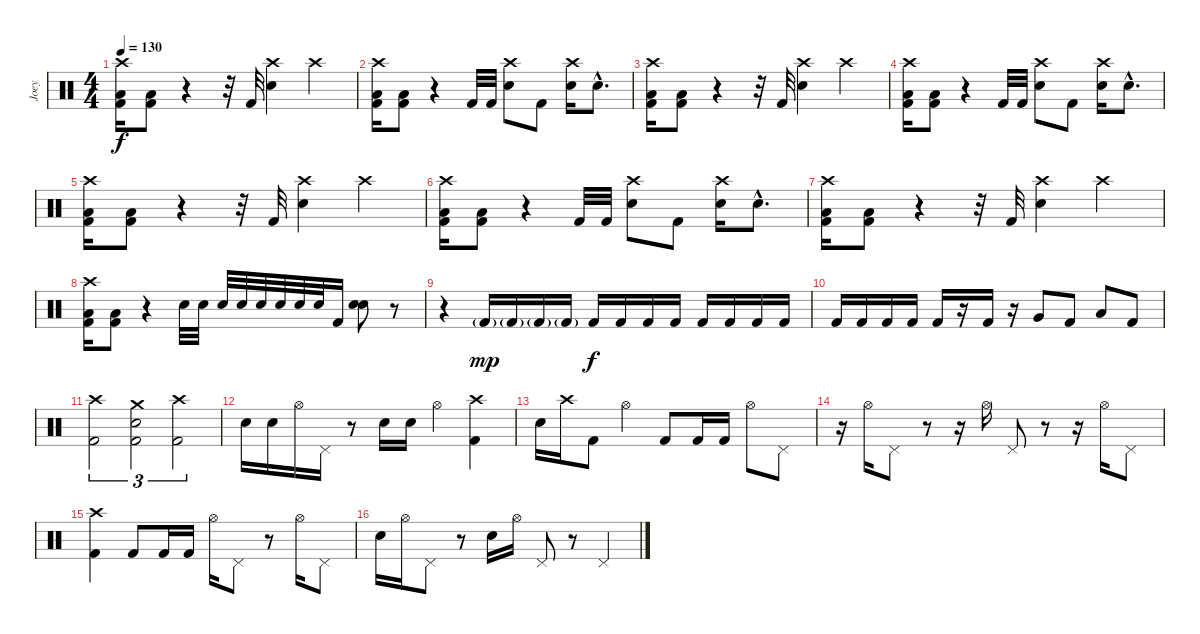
\track ("Joey" "Joey") {instrument percussion}
\staff {score}
\articulation defaults
\ts (4 4)
\tempo 130
\clef neutral
\ks c
("Crash high (hit)" "Low Floor Tom (hit)" "Kick (hit) 2").16{dy f} ("Low Floor Tom (hit)" "Kick (hit) 2").8 r.4 r.32 "Kick (hit) 2".32 ("Crash high (hit)" "Electric Snare (hit)").4 "Crash high (hit)".4 |
("Crash high (hit)" "Low Floor Tom (hit)" "Kick (hit) 2").16 ("Low Floor Tom (hit)" "Kick (hit) 2").8 r.4 "Kick (hit) 2".32 "Kick (hit) 2".32 ("Crash high (hit)" "Electric Snare (hit)").8 "Kick (hit) 2".8 ("Crash high (hit)" "Electric Snare (hit)").16 "Snare (hit) 2"{hac}.8{d} |
("Crash high (hit)" "Low Floor Tom (hit)" "Kick (hit) 2").16 ("Low Floor Tom (hit)" "Kick (hit) 2").8 r.4 r.32 "Kick (hit) 2".32 ("Crash high (hit)" "Electric Snare (hit)").4 "Crash high (hit)".4 |
("Crash high (hit)" "Low Floor Tom (hit)" "Kick (hit) 2").16 ("Low Floor Tom (hit)" "Kick (hit) 2").8 r.4 "Kick (hit) 2".32 "Kick (hit) 2".32 ("Crash high (hit)" "Electric Snare (hit)").8 "Kick (hit) 2".8 ("Crash high (hit)" "Electric Snare (hit)").16 "Snare (hit) 2"{hac}.8{d} |
("Crash high (hit)" "Low Floor Tom (hit)" "Kick (hit) 2").16 ("Low Floor Tom (hit)" "Kick (hit) 2").8 r.4 r.32 "Kick (hit) 2".32 ("Crash high (hit)" "Electric Snare (hit)").4 "Crash high (hit)".4 |
("Crash high (hit)" "Low Floor Tom (hit)" "Kick (hit) 2").16 ("Low Floor Tom (hit)" "Kick (hit) 2").8 r.4 "Kick (hit) 2".32 "Kick (hit) 2".32 ("Crash high (hit)" "Electric Snare (hit)").8 "Kick (hit) 2".8 ("Crash high (hit)" "Electric Snare (hit)").16 "Snare (hit) 2"{hac}.8{d} |
("Crash high (hit)" "Low Floor Tom (hit)" "Kick (hit) 2").16 ("Low Floor Tom (hit)" "Kick (hit) 2").8 r.4 r.32 "Kick (hit) 2".32 ("Crash high (hit)" "Electric Snare (hit)").4 "Crash high (hit)".4 |
("Crash high (hit)" "Low Floor Tom (hit)" "Kick (hit) 2").16 ("Low Floor Tom (hit)" "Kick (hit) 2").8 r.4 "Electric Snare (hit)".32 "Electric Snare (hit)".32 "Electric Snare (hit)".32 "Electric Snare (hit)".32 "Electric Snare (hit)".32 "Electric Snare (hit)".32 "Electric Snare (hit)".32 "Electric Snare (hit)".32 "Kick (hit) 2".16 ("Electric Snare (hit)" "Electric Snare (hit)").8{bd 60} r.8 |
r.4 "Kick (hit) 2"{g}.16{dy mp} "Kick (hit) 2"{g}.16 "Kick (hit) 2"{g}.16 "Kick (hit) 2"{g}.16 "Kick (hit) 2".16{dy f} "Kick (hit) 2".16 "Kick (hit) 2".16 "Kick (hit) 2".16 "Kick (hit) 2".16 "Kick (hit) 2".16 "Kick (hit) 2".16 "Kick (hit) 2".16 |
"Kick (hit) 2".16 "Kick (hit) 2".16 "Kick (hit) 2".16 "Kick (hit) 2".16 "Kick (hit) 2".16 r.16 "Kick (hit) 2".16 r.16 "Very Low Tom (hit)".8 "Kick (hit) 2".8 "Low Floor Tom (hit)".8 "Kick (hit) 2".8 |
("Crash high (hit)" "Kick (hit) 2").2{tu (3 2)} ("Crash medium (hit)" "Electric Snare (hit)" "Kick (hit) 2").2{tu (3 2)} ("Crash high (hit)" "Kick (hit) 2").2{tu (3 2)} |
"Electric Snare (hit)".16 "Electric Snare (hit)".16 "Hi-Hat (open)".16 "Pedal Hi-Hat (hit)".16 r.8 "Electric Snare (hit)".16 "Electric Snare (hit)".16 "Hi-Hat (open)".4 ("Crash high (hit)" "Kick (hit) 2").4 |
"Electric Snare (hit)".16 "Crash high (hit)".16 "Kick (hit) 2".8 "Hi-Hat (open)".4 "Kick (hit) 2".8 "Kick (hit) 2".16 "Kick (hit) 2".16 "Hi-Hat (open)".8 "Pedal Hi-Hat (hit)".8 |
r.16 "Hi-Hat (open)".16 "Pedal Hi-Hat (hit)".8 r.8 r.16 "Hi-Hat (open)".16 "Pedal Hi-Hat (hit)".8 r.8 r.16 "Hi-Hat (open)".16 "Pedal Hi-Hat (hit)".8 |
("Crash high (hit)" "Kick (hit) 2").4 "Kick (hit) 2".8 "Kick (hit) 2".16 "Kick (hit) 2".16 "Hi-Hat (open)".16 "Pedal Hi-Hat (hit)".8 r.8 "Hi-Hat (open)".16 "Pedal Hi-Hat (hit)".8 |
"Electric Snare (hit)".16 "Hi-Hat (open)".16 "Pedal Hi-Hat (hit)".8 r.8 "Electric Snare (hit)".16 "Hi-Hat (open)".16 "Pedal Hi-Hat (hit)".8 r.8 "Pedal Hi-Hat (hit)".4
